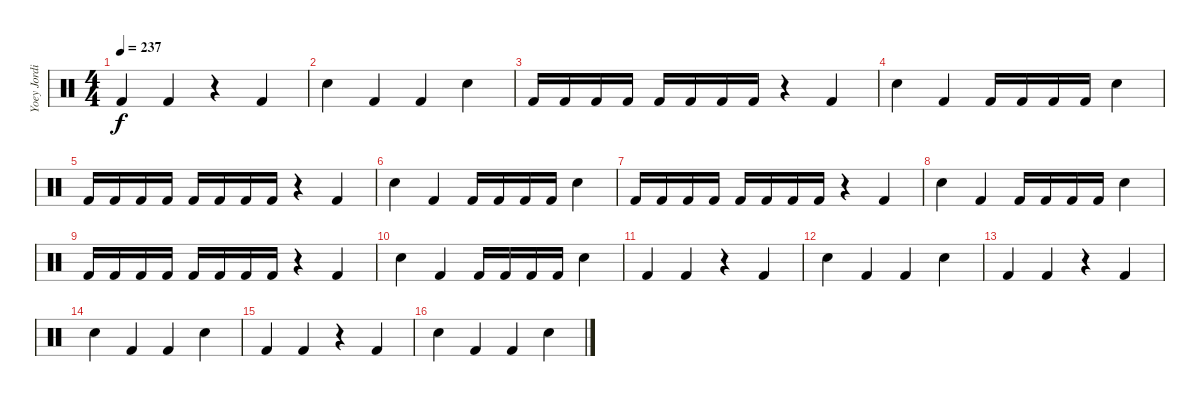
\track ("Yoey Jordison" "Yoey Jordi") {instrument percussion}
\staff {score}
\articulation defaults
\ts (4 4)
\tempo 237
\clef neutral
\ks c "Kick (hit) 2".4{dy f} "Kick (hit) 2".4
r.4 "Kick (hit) 2".4 |
"Electric Snare (hit)".4 "Kick (hit) 2".4 "Kick (hit) 2".4 "Electric Snare (hit)".4 |
"Kick (hit) 2".16 "Kick (hit) 2".16 "Kick (hit) 2".16 "Kick (hit) 2".16 "Kick (hit) 2".16 "Kick (hit) 2".16 "Kick (hit) 2".16 "Kick (hit) 2".16 r.4 "Kick (hit) 2".4 |
"Electric Snare (hit)".4 "Kick (hit) 2".4 "Kick (hit) 2".16 "Kick (hit) 2".16 "Kick (hit) 2".16 "Kick (hit) 2".16 "Electric Snare (hit)".4 |
"Kick (hit) 2".16 "Kick (hit) 2".16 "Kick (hit) 2".16 "Kick (hit) 2".16 "Kick (hit) 2".16 "Kick (hit) 2".16 "Kick (hit) 2".16 "Kick (hit) 2".16 r.4 "Kick (hit) 2".4 |
"Electric Snare (hit)".4 "Kick (hit) 2".4 "Kick (hit) 2".16 "Kick (hit) 2".16 "Kick (hit) 2".16 "Kick (hit) 2".16 "Electric Snare (hit)".4 |
"Kick (hit) 2".16 "Kick (hit) 2".16 "Kick (hit) 2".16 "Kick (hit) 2".16 "Kick (hit) 2".16 "Kick (hit) 2".16 "Kick (hit) 2".16 "Kick (hit) 2".16 r.4 "Kick (hit) 2".4 |
"Electric Snare (hit)".4 "Kick (hit) 2".4 "Kick (hit) 2".16 "Kick (hit) 2".16 "Kick (hit) 2".16 "Kick (hit) 2".16 "Electric Snare (hit)".4 |
"Kick (hit) 2".16 "Kick (hit) 2".16 "Kick (hit) 2".16 "Kick (hit) 2".16 "Kick (hit) 2".16 "Kick (hit) 2".16 "Kick (hit) 2".16 "Kick (hit) 2".16 r.4 "Kick (hit) 2".4 |
"Electric Snare (hit)".4 "Kick (hit) 2".4 "Kick (hit) 2".16 "Kick (hit) 2".16 "Kick (hit) 2".16 "Kick (hit) 2".16 "Electric Snare (hit)".4 |
"Kick (hit) 2".4 "Kick (hit) 2".4 r.4 "Kick (hit) 2".4 |
"Electric Snare (hit)".4 "Kick (hit) 2".4 "Kick (hit) 2".4 "Electric Snare (hit)".4 |
"Kick (hit) 2".4 "Kick (hit) 2".4 r.4 "Kick (hit) 2".4 |
"Electric Snare (hit)".4 "Kick (hit) 2".4 "Kick (hit) 2".4 "Electric Snare (hit)".4 |
"Kick (hit) 2".4 "Kick (hit) 2".4 r.4 "Kick (hit) 2".4 |
"Electric Snare (hit)".4 "Kick (hit) 2".4 "Kick (hit) 2".4 "Electric Snare (hit)".4
